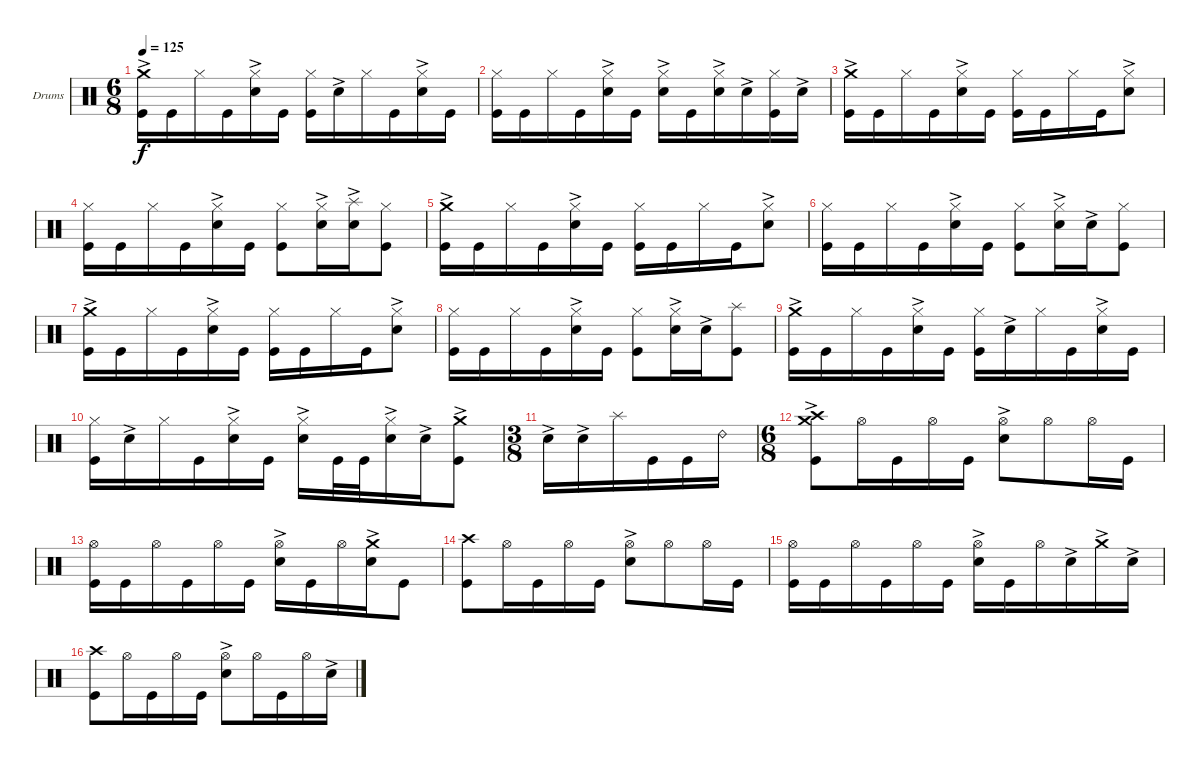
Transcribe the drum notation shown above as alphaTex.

\defaultSystemsLayout 4
\bracketExtendMode groupsimilarinstruments
\firstSystemTrackNameOrientation horizontal
\otherSystemsTrackNameOrientation horizontal
\track ("Drumkit" "Drums") {instrument percussion}
\staff {score}
\articulation defaults
\ts (6 8)
\tempo 125
\clef neutral
\ks c
("Kick (hit)" "Crash medium (hit)"{ac}).16{dy f} "Kick (hit)".16 "Hi-Hat (closed)".16 "Kick (hit)".16 ("Snare (hit) 2"{ac} "Hi-Hat (closed)").16 "Kick (hit)".16 ("Hi-Hat (closed)" "Kick (hit)").16 "Snare (hit) 2"{ac}.16 "Hi-Hat (closed)".16 "Kick (hit)".16 ("Hi-Hat (closed)" "Snare (hit) 2"{ac}).16 "Kick (hit)".16 |
("Kick (hit)" "Hi-Hat (closed)").16 "Kick (hit)".16 "Hi-Hat (closed)".16 "Kick (hit)".16 ("Snare (hit) 2"{ac} "Hi-Hat (closed)").16 "Kick (hit)".16 ("Hi-Hat (closed)" "Snare (hit) 2"{ac}).16 "Kick (hit)".16 ("Hi-Hat (closed)" "Snare (hit) 2"{ac}).16 "Snare (hit) 2"{ac}.16 ("Kick (hit)" "Hi-Hat (closed)").16 "Snare (hit) 2"{ac}.16 |
("Kick (hit)" "Crash medium (hit)"{ac}).16 "Kick (hit)".16 "Hi-Hat (closed)".16 "Kick (hit)".16 ("Snare (hit) 2"{ac} "Hi-Hat (closed)").16 "Kick (hit)".16 ("Hi-Hat (closed)" "Kick (hit)").16 "Kick (hit)".16 "Hi-Hat (closed)".16 "Kick (hit)".16 ("Hi-Hat (closed)" "Snare (hit) 2"{ac}).8 |
("Kick (hit)" "Hi-Hat (closed)").16 "Kick (hit)".16 "Hi-Hat (closed)".16 "Kick (hit)".16 ("Snare (hit) 2"{ac} "Hi-Hat (closed)").16 "Kick (hit)".16 ("Hi-Hat (closed)" "Kick (hit)").8 ("Hi-Hat (closed)" "Snare (hit) 2"{ac}).16 ("Snare (hit) 2"{ac} "Splash (hit)").16 ("Kick (hit)" "Hi-Hat (closed)").8 |
("Kick (hit)" "Crash medium (hit)"{ac}).16 "Kick (hit)".16 "Hi-Hat (closed)".16 "Kick (hit)".16 ("Snare (hit) 2"{ac} "Hi-Hat (closed)").16 "Kick (hit)".16 ("Hi-Hat (closed)" "Kick (hit)").16 "Kick (hit)".16 "Hi-Hat (closed)".16 "Kick (hit)".16 ("Hi-Hat (closed)" "Snare (hit) 2"{ac}).8 |
("Kick (hit)" "Hi-Hat (closed)").16 "Kick (hit)".16 "Hi-Hat (closed)".16 "Kick (hit)".16 ("Snare (hit) 2"{ac} "Hi-Hat (closed)").16 "Kick (hit)".16 ("Hi-Hat (closed)" "Kick (hit)").8 ("Hi-Hat (closed)" "Snare (hit) 2"{ac}).16 "Snare (hit) 2"{ac}.16 ("Kick (hit)" "Hi-Hat (closed)").8 |
("Kick (hit)" "Crash medium (hit)"{ac}).16 "Kick (hit)".16 "Hi-Hat (closed)".16 "Kick (hit)".16 ("Snare (hit) 2"{ac} "Hi-Hat (closed)").16 "Kick (hit)".16 ("Hi-Hat (closed)" "Kick (hit)").16 "Kick (hit)".16 "Hi-Hat (closed)".16 "Kick (hit)".16 ("Hi-Hat (closed)" "Snare (hit) 2"{ac}).8 |
("Kick (hit)" "Hi-Hat (closed)").16 "Kick (hit)".16 "Hi-Hat (closed)".16 "Kick (hit)".16 ("Snare (hit) 2"{ac} "Hi-Hat (closed)").16 "Kick (hit)".16 ("Hi-Hat (closed)" "Kick (hit)").8 ("Hi-Hat (closed)" "Snare (hit) 2"{ac}).16 "Snare (hit) 2"{ac}.16 ("Kick (hit)" "Splash (hit)").8 |
("Kick (hit)" "Crash medium (hit)"{ac}).16 "Kick (hit)".16 "Hi-Hat (closed)".16 "Kick (hit)".16 ("Snare (hit) 2"{ac} "Hi-Hat (closed)").16 "Kick (hit)".16 ("Hi-Hat (closed)" "Kick (hit)").16 "Snare (hit) 2"{ac}.16 "Hi-Hat (closed)".16 "Kick (hit)".16 ("Hi-Hat (closed)" "Snare (hit) 2"{ac}).16 "Kick (hit)".16 |
("Kick (hit)" "Hi-Hat (closed)").16 "Snare (hit) 2"{ac}.16 "Hi-Hat (closed)".16 "Kick (hit)".16 ("Snare (hit) 2"{ac} "Hi-Hat (closed)").16 "Kick (hit)".16 ("Hi-Hat (closed)" "Snare (hit) 2"{ac}).16 "Kick (hit)".32 "Kick (hit)".32 ("Hi-Hat (closed)" "Snare (hit) 2"{ac}).16 "Snare (hit) 2"{ac}.16 ("Kick (hit)" "Crash medium (hit)"{ac}).8 |
\ts (3 8)
"Snare (hit) 2"{ac}.16 "Snare (hit) 2"{ac}.16 "Splash (hit)".16 "Kick (hit)".16 "Kick (hit)".16 "Ride (bell) 2".16 |
\ts (6 8)
("Crash high (hit)" "Kick (hit)" "Crash medium (hit)"{ac}).8 "Hi-Hat (open)".16 "Kick (hit)".16 "Hi-Hat (open)".16 "Kick (hit)".16 ("Hi-Hat (open)" "Snare (hit) 2"{ac}).8 "Hi-Hat (open)".8 "Hi-Hat (open)".16 "Kick (hit)".16 |
("Kick (hit)" "Hi-Hat (open)").16 "Kick (hit)".16 "Hi-Hat (open)".16 "Kick (hit)".16 "Hi-Hat (open)".16 "Kick (hit)".16 ("Hi-Hat (open)" "Snare (hit) 2"{ac}).16 "Kick (hit)".16 "Hi-Hat (open)".16 ("Snare (hit) 2"{ac} "Crash medium (hit)"{ac}).16 "Kick (hit)".8 |
("Crash high (hit)" "Kick (hit)").8 "Hi-Hat (open)".16 "Kick (hit)".16 "Hi-Hat (open)".16 "Kick (hit)".16 ("Hi-Hat (open)" "Snare (hit) 2"{ac}).8 "Hi-Hat (open)".8 "Hi-Hat (open)".16 "Kick (hit)".16 |
("Kick (hit)" "Hi-Hat (open)").16 "Kick (hit)".16 "Hi-Hat (open)".16 "Kick (hit)".16 "Hi-Hat (open)".16 "Kick (hit)".16 ("Hi-Hat (open)" "Snare (hit) 2"{ac}).16 "Kick (hit)".16 "Hi-Hat (open)".16 "Snare (hit) 2"{ac}.16 "Crash medium (hit)"{ac}.16 "Snare (hit) 2"{ac}.16 |
("Crash high (hit)" "Kick (hit)").8 "Hi-Hat (open)".16 "Kick (hit)".16 "Hi-Hat (open)".16 "Kick (hit)".16 ("Hi-Hat (open)" "Snare (hit) 2"{ac}).8 "Hi-Hat (open)".16 "Kick (hit)".16 "Hi-Hat (open)".16 "Snare (hit) 2"{ac}.16
